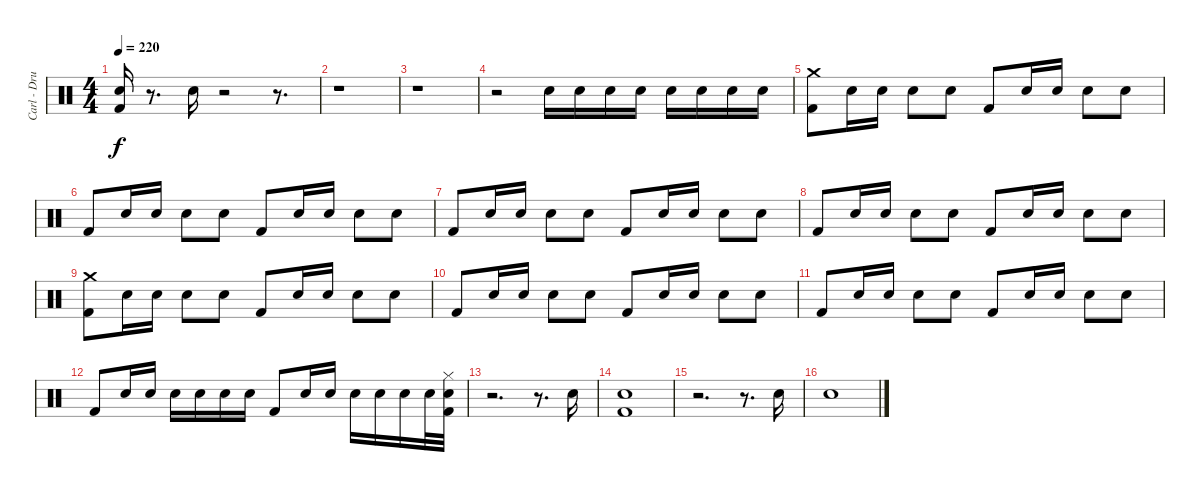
\track ("Carl - Drums" "Carl - Dru") {instrument percussion}
\staff {score}
\articulation defaults
\ts (4 4)
\tempo 220
\clef neutral
\ks c
("Electric Snare (hit)" "Kick (hit) 2").16{dy f} r.8{d} "Electric Snare (hit)".16 r.2 r.8{d} |
r.1 |
r.1 |
r.2 "Electric Snare (hit)".16 "Electric Snare (hit)".16 "Electric Snare (hit)".16 "Electric Snare (hit)".16 "Electric Snare (hit)".16 "Electric Snare (hit)".16 "Electric Snare (hit)".16 "Electric Snare (hit)".16 |
("Crash medium (hit)" "Kick (hit) 2").8 "Electric Snare (hit)".16 "Electric Snare (hit)".16 "Electric Snare (hit)".8 "Electric Snare (hit)".8 "Kick (hit) 2".8 "Electric Snare (hit)".16 "Electric Snare (hit)".16 "Electric Snare (hit)".8 "Electric Snare (hit)".8 |
"Kick (hit) 2".8 "Electric Snare (hit)".16 "Electric Snare (hit)".16 "Electric Snare (hit)".8 "Electric Snare (hit)".8 "Kick (hit) 2".8 "Electric Snare (hit)".16 "Electric Snare (hit)".16 "Electric Snare (hit)".8 "Electric Snare (hit)".8 |
"Kick (hit) 2".8 "Electric Snare (hit)".16 "Electric Snare (hit)".16 "Electric Snare (hit)".8 "Electric Snare (hit)".8 "Kick (hit) 2".8 "Electric Snare (hit)".16 "Electric Snare (hit)".16 "Electric Snare (hit)".8 "Electric Snare (hit)".8 |
"Kick (hit) 2".8 "Electric Snare (hit)".16 "Electric Snare (hit)".16 "Electric Snare (hit)".8 "Electric Snare (hit)".8 "Kick (hit) 2".8 "Electric Snare (hit)".16 "Electric Snare (hit)".16 "Electric Snare (hit)".8 "Electric Snare (hit)".8 |
("Crash medium (hit)" "Kick (hit) 2").8 "Electric Snare (hit)".16 "Electric Snare (hit)".16 "Electric Snare (hit)".8 "Electric Snare (hit)".8 "Kick (hit) 2".8 "Electric Snare (hit)".16 "Electric Snare (hit)".16 "Electric Snare (hit)".8 "Electric Snare (hit)".8 |
"Kick (hit) 2".8 "Electric Snare (hit)".16 "Electric Snare (hit)".16 "Electric Snare (hit)".8 "Electric Snare (hit)".8 "Kick (hit) 2".8 "Electric Snare (hit)".16 "Electric Snare (hit)".16 "Electric Snare (hit)".8 "Electric Snare (hit)".8 |
"Kick (hit) 2".8 "Electric Snare (hit)".16 "Electric Snare (hit)".16 "Electric Snare (hit)".8 "Electric Snare (hit)".8 "Kick (hit) 2".8 "Electric Snare (hit)".16 "Electric Snare (hit)".16 "Electric Snare (hit)".8 "Electric Snare (hit)".8 |
"Kick (hit) 2".8 "Electric Snare (hit)".16 "Electric Snare (hit)".16 "Electric Snare (hit)".16 "Electric Snare (hit)".16 "Electric Snare (hit)".16 "Electric Snare (hit)".16 "Kick (hit) 2".8 "Electric Snare (hit)".16 "Electric Snare (hit)".16 "Electric Snare (hit)".16 "Electric Snare (hit)".16 "Electric Snare (hit)".16 "Electric Snare (hit)".32 ("Kick (hit) 2" "Hi-Hat (closed)" "Electric Snare (hit)").32 |
r.2{d} r.8{d} "Electric Snare (hit)".16 |
("Electric Snare (hit)" "Kick (hit) 2").1 |
r.2{d} r.8{d} "Electric Snare (hit)".16 |
"Electric Snare (hit)".1
